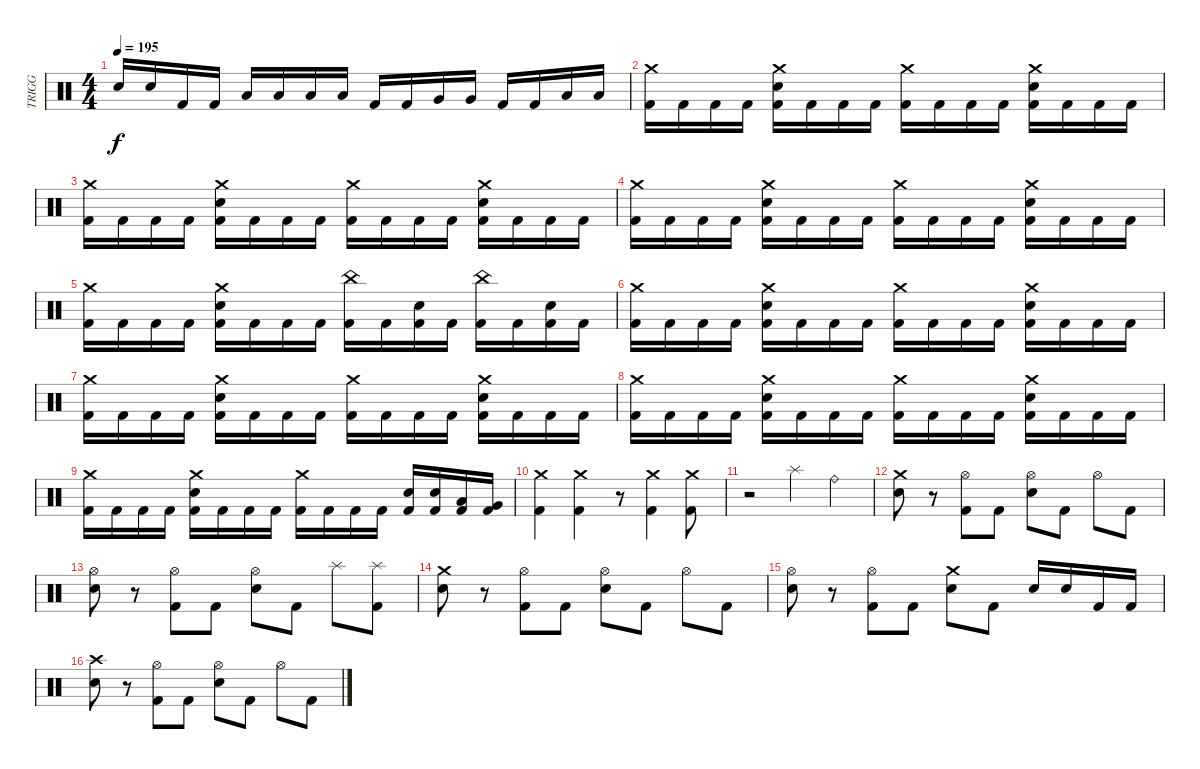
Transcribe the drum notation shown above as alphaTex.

\track ("TRIGG" "TRIGG") {instrument percussion}
\staff {score}
\articulation defaults
\ts (4 4)
\tempo 195
\clef neutral
\ks c "Electric Snare (hit)".16{dy f} "Electric Snare (hit)".16 "Kick (hit) 2".16 "Kick (hit) 2".16 "Low Tom (hit)".16 "Low Tom (hit)".16 "Low Tom (hit)".16 "Low Tom (hit)".16 "Kick (hit) 2".16 "Kick (hit) 2".16 "Very Low Tom (hit)".16 "Very Low Tom (hit)".16 "Kick (hit) 2".16 "Kick (hit) 2".16 "Low Floor Tom (hit)".16 "Low Floor Tom (hit)".16
|
("Crash medium (hit)" "Kick (hit) 2").16 "Kick (hit) 2".16 "Kick (hit) 2".16 "Kick (hit) 2".16 ("Crash medium (hit)" "Electric Snare (hit)" "Kick (hit) 2").16 "Kick (hit) 2".16 "Kick (hit) 2".16 "Kick (hit) 2".16 ("Crash medium (hit)" "Kick (hit) 2").16 "Kick (hit) 2".16 "Kick (hit) 2".16 "Kick (hit) 2".16 ("Crash medium (hit)" "Electric Snare (hit)" "Kick (hit) 2").16 "Kick (hit) 2".16 "Kick (hit) 2".16 "Kick (hit) 2".16 |
("Crash medium (hit)" "Kick (hit) 2").16 "Kick (hit) 2".16 "Kick (hit) 2".16 "Kick (hit) 2".16 ("Crash medium (hit)" "Electric Snare (hit)" "Kick (hit) 2").16 "Kick (hit) 2".16 "Kick (hit) 2".16 "Kick (hit) 2".16 ("Crash medium (hit)" "Kick (hit) 2").16 "Kick (hit) 2".16 "Kick (hit) 2".16 "Kick (hit) 2".16 ("Crash medium (hit)" "Electric Snare (hit)" "Kick (hit) 2").16 "Kick (hit) 2".16 "Kick (hit) 2".16 "Kick (hit) 2".16 |
("Crash medium (hit)" "Kick (hit) 2").16 "Kick (hit) 2".16 "Kick (hit) 2".16 "Kick (hit) 2".16 ("Crash medium (hit)" "Electric Snare (hit)" "Kick (hit) 2").16 "Kick (hit) 2".16 "Kick (hit) 2".16 "Kick (hit) 2".16 ("Crash medium (hit)" "Kick (hit) 2").16 "Kick (hit) 2".16 "Kick (hit) 2".16 "Kick (hit) 2".16 ("Crash medium (hit)" "Electric Snare (hit)" "Kick (hit) 2").16 "Kick (hit) 2".16 "Kick (hit) 2".16 "Kick (hit) 2".16 |
("Crash medium (hit)" "Kick (hit) 2").16 "Kick (hit) 2".16 "Kick (hit) 2".16 "Kick (hit) 2".16 ("Crash medium (hit)" "Electric Snare (hit)" "Kick (hit) 2").16 "Kick (hit) 2".16 "Kick (hit) 2".16 "Kick (hit) 2".16 ("China (hit)" "Kick (hit) 2").16 "Kick (hit) 2".16 ("Electric Snare (hit)" "Kick (hit) 2").16 "Kick (hit) 2".16 ("China (hit)" "Kick (hit) 2").16 "Kick (hit) 2".16 ("Electric Snare (hit)" "Kick (hit) 2").16 "Kick (hit) 2".16 |
("Crash medium (hit)" "Kick (hit) 2").16 "Kick (hit) 2".16 "Kick (hit) 2".16 "Kick (hit) 2".16 ("Crash medium (hit)" "Electric Snare (hit)" "Kick (hit) 2").16 "Kick (hit) 2".16 "Kick (hit) 2".16 "Kick (hit) 2".16 ("Crash medium (hit)" "Kick (hit) 2").16 "Kick (hit) 2".16 "Kick (hit) 2".16 "Kick (hit) 2".16 ("Crash medium (hit)" "Electric Snare (hit)" "Kick (hit) 2").16 "Kick (hit) 2".16 "Kick (hit) 2".16 "Kick (hit) 2".16 |
("Crash medium (hit)" "Kick (hit) 2").16 "Kick (hit) 2".16 "Kick (hit) 2".16 "Kick (hit) 2".16 ("Crash medium (hit)" "Electric Snare (hit)" "Kick (hit) 2").16 "Kick (hit) 2".16 "Kick (hit) 2".16 "Kick (hit) 2".16 ("Crash medium (hit)" "Kick (hit) 2").16 "Kick (hit) 2".16 "Kick (hit) 2".16 "Kick (hit) 2".16 ("Crash medium (hit)" "Electric Snare (hit)" "Kick (hit) 2").16 "Kick (hit) 2".16 "Kick (hit) 2".16 "Kick (hit) 2".16 |
("Crash medium (hit)" "Kick (hit) 2").16 "Kick (hit) 2".16 "Kick (hit) 2".16 "Kick (hit) 2".16 ("Crash medium (hit)" "Electric Snare (hit)" "Kick (hit) 2").16 "Kick (hit) 2".16 "Kick (hit) 2".16 "Kick (hit) 2".16 ("Crash medium (hit)" "Kick (hit) 2").16 "Kick (hit) 2".16 "Kick (hit) 2".16 "Kick (hit) 2".16 ("Crash medium (hit)" "Electric Snare (hit)" "Kick (hit) 2").16 "Kick (hit) 2".16 "Kick (hit) 2".16 "Kick (hit) 2".16 |
("Crash medium (hit)" "Kick (hit) 2").16 "Kick (hit) 2".16 "Kick (hit) 2".16 "Kick (hit) 2".16 ("Crash medium (hit)" "Electric Snare (hit)" "Kick (hit) 2").16 "Kick (hit) 2".16 "Kick (hit) 2".16 "Kick (hit) 2".16 ("Crash medium (hit)" "Kick (hit) 2").16 "Kick (hit) 2".16 "Kick (hit) 2".16 "Kick (hit) 2".16 ("Electric Snare (hit)" "Kick (hit) 2").16 ("Electric Snare (hit)" "Kick (hit) 2").16 ("Low Tom (hit)" "Kick (hit) 2").16 ("Very Low Tom (hit)" "Kick (hit) 2").16 |
("Crash medium (hit)" "Kick (hit) 2").4 ("Crash medium (hit)" "Kick (hit) 2").4 r.8 ("Crash medium (hit)" "Kick (hit) 2").4 ("Crash medium (hit)" "Kick (hit) 2").8 |
r.2 "Splash (hit)".4 "Ride (bell)".4 |
("Crash medium (hit)" "Electric Snare (hit)").8 r.8 ("Hi-Hat (open)" "Kick (hit) 2").8 "Kick (hit) 2".8 ("Hi-Hat (open)" "Electric Snare (hit)").8 "Kick (hit) 2".8 "Hi-Hat (open)".8 "Kick (hit) 2".8 |
("Hi-Hat (open)" "Electric Snare (hit)").8 r.8 ("Hi-Hat (open)" "Kick (hit) 2").8 "Kick (hit) 2".8 ("Hi-Hat (open)" "Electric Snare (hit)").8 "Kick (hit) 2".8 "Splash (hit)".8 ("Splash (hit)" "Kick (hit) 2").8 |
("Crash medium (hit)" "Electric Snare (hit)").8 r.8 ("Hi-Hat (open)" "Kick (hit) 2").8 "Kick (hit) 2".8 ("Hi-Hat (open)" "Electric Snare (hit)").8 "Kick (hit) 2".8 "Hi-Hat (open)".8 "Kick (hit) 2".8 |
("Hi-Hat (open)" "Electric Snare (hit)").8 r.8 ("Hi-Hat (open)" "Kick (hit) 2").8 "Kick (hit) 2".8 ("Crash medium (hit)" "Electric Snare (hit)").8 "Kick (hit) 2".8 "Electric Snare (hit)".16 "Electric Snare (hit)".16 "Kick (hit) 2".16 "Kick (hit) 2".16 |
("Crash high (hit)" "Electric Snare (hit)").8 r.8 ("Hi-Hat (open)" "Kick (hit) 2").8 "Kick (hit) 2".8 ("Hi-Hat (open)" "Electric Snare (hit)").8 "Kick (hit) 2".8 "Hi-Hat (open)".8 "Kick (hit) 2".8
